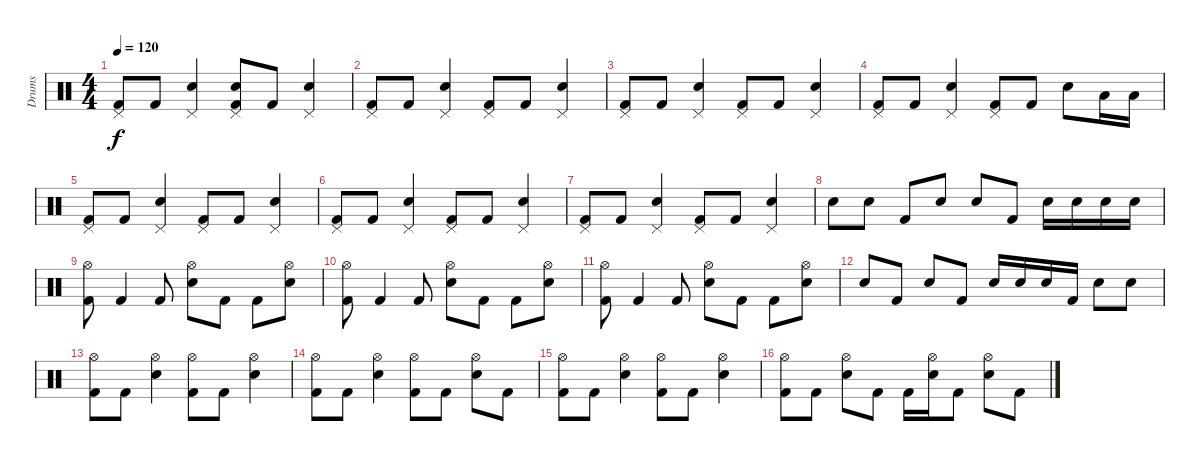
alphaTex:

\track ("Drums" "Drums") {instrument percussion}
\staff {score}
\articulation defaults
\ts (4 4)
\tempo 120
\clef neutral
\ks c
("Pedal Hi-Hat (hit)" "Kick (hit) 2").8{dy f} "Kick (hit) 2".8 ("Pedal Hi-Hat (hit)" "Snare (hit) 2").4 ("Pedal Hi-Hat (hit)" "Snare (hit)" "Kick (hit) 2").8 "Kick (hit) 2".8 ("Pedal Hi-Hat (hit)" "Snare (hit) 2").4 |
("Pedal Hi-Hat (hit)" "Kick (hit) 2").8 "Kick (hit) 2".8 ("Pedal Hi-Hat (hit)" "Snare (hit) 2").4 ("Pedal Hi-Hat (hit)" "Kick (hit) 2").8 "Kick (hit) 2".8 ("Pedal Hi-Hat (hit)" "Snare (hit) 2").4 |
("Pedal Hi-Hat (hit)" "Kick (hit) 2").8 "Kick (hit) 2".8 ("Pedal Hi-Hat (hit)" "Snare (hit) 2").4 ("Pedal Hi-Hat (hit)" "Kick (hit) 2").8 "Kick (hit) 2".8 ("Pedal Hi-Hat (hit)" "Snare (hit) 2").4 |
("Pedal Hi-Hat (hit)" "Kick (hit) 2").8 "Kick (hit) 2".8 ("Pedal Hi-Hat (hit)" "Snare (hit) 2").4 ("Pedal Hi-Hat (hit)" "Kick (hit) 2").8 "Kick (hit) 2".8 "Snare (hit) 2".8 "Low Tom (hit)".16 "Low Tom (hit)".16 |
("Pedal Hi-Hat (hit)" "Kick (hit) 2").8 "Kick (hit) 2".8 ("Pedal Hi-Hat (hit)" "Snare (hit) 2").4 ("Pedal Hi-Hat (hit)" "Kick (hit) 2").8 "Kick (hit) 2".8 ("Pedal Hi-Hat (hit)" "Snare (hit) 2").4 |
("Pedal Hi-Hat (hit)" "Kick (hit) 2").8 "Kick (hit) 2".8 ("Pedal Hi-Hat (hit)" "Snare (hit) 2").4 ("Pedal Hi-Hat (hit)" "Kick (hit) 2").8 "Kick (hit) 2".8 ("Pedal Hi-Hat (hit)" "Snare (hit) 2").4 |
("Pedal Hi-Hat (hit)" "Kick (hit) 2").8 "Kick (hit) 2".8 ("Pedal Hi-Hat (hit)" "Snare (hit) 2").4 ("Pedal Hi-Hat (hit)" "Kick (hit) 2").8 "Kick (hit) 2".8 ("Pedal Hi-Hat (hit)" "Snare (hit) 2").4 |
"Snare (hit) 2".8 "Snare (hit) 2".8 "Kick (hit) 2".8 "Snare (hit) 2".8 "Snare (hit) 2".8 "Kick (hit) 2".8 "Snare (hit) 2".16 "Snare (hit) 2".16 "Snare (hit) 2".16 "Snare (hit) 2".16 |
("Hi-Hat (open)" "Kick (hit) 2").8 "Kick (hit) 2".4 "Kick (hit) 2".8 ("Hi-Hat (open)" "Snare (hit) 2").8 "Kick (hit) 2".8 "Kick (hit) 2".8 ("Hi-Hat (open)" "Snare (hit) 2").8 |
("Hi-Hat (open)" "Kick (hit) 2").8 "Kick (hit) 2".4 "Kick (hit) 2".8 ("Hi-Hat (open)" "Snare (hit) 2").8 "Kick (hit) 2".8 "Kick (hit) 2".8 ("Hi-Hat (open)" "Snare (hit) 2").8 |
("Hi-Hat (open)" "Kick (hit) 2").8 "Kick (hit) 2".4 "Kick (hit) 2".8 ("Hi-Hat (open)" "Snare (hit) 2").8 "Kick (hit) 2".8 "Kick (hit) 2".8 ("Hi-Hat (open)" "Snare (hit) 2").8 |
"Snare (hit) 2".8 "Kick (hit) 2".8 "Snare (hit) 2".8 "Kick (hit) 2".8 "Snare (hit) 2".16 "Snare (hit) 2".16 "Snare (hit) 2".16 "Kick (hit) 2".16 "Snare (hit) 2".8 "Snare (hit) 2".8 |
("Hi-Hat (open)" "Kick (hit) 2").8 "Kick (hit) 2".8 ("Hi-Hat (open)" "Snare (hit) 2").4 ("Hi-Hat (open)" "Kick (hit) 2").8 "Kick (hit) 2".8 ("Hi-Hat (open)" "Snare (hit) 2").4 |
("Hi-Hat (open)" "Kick (hit) 2").8 "Kick (hit) 2".8 ("Hi-Hat (open)" "Snare (hit) 2").4 ("Hi-Hat (open)" "Kick (hit) 2").8 "Kick (hit) 2".8 ("Hi-Hat (open)" "Snare (hit) 2").8 "Kick (hit) 2".8 |
("Hi-Hat (open)" "Kick (hit) 2").8 "Kick (hit) 2".8 ("Hi-Hat (open)" "Snare (hit) 2").4 ("Hi-Hat (open)" "Kick (hit) 2").8 "Kick (hit) 2".8 ("Hi-Hat (open)" "Snare (hit) 2").4 |
("Hi-Hat (open)" "Kick (hit) 2").8 "Kick (hit) 2".8 ("Hi-Hat (open)" "Snare (hit) 2").8 "Kick (hit) 2".8 "Kick (hit) 2".16 ("Hi-Hat (open)" "Snare (hit) 2").16 "Kick (hit) 2".8 ("Hi-Hat (open)" "Snare (hit) 2").8 "Kick (hit) 2".8
